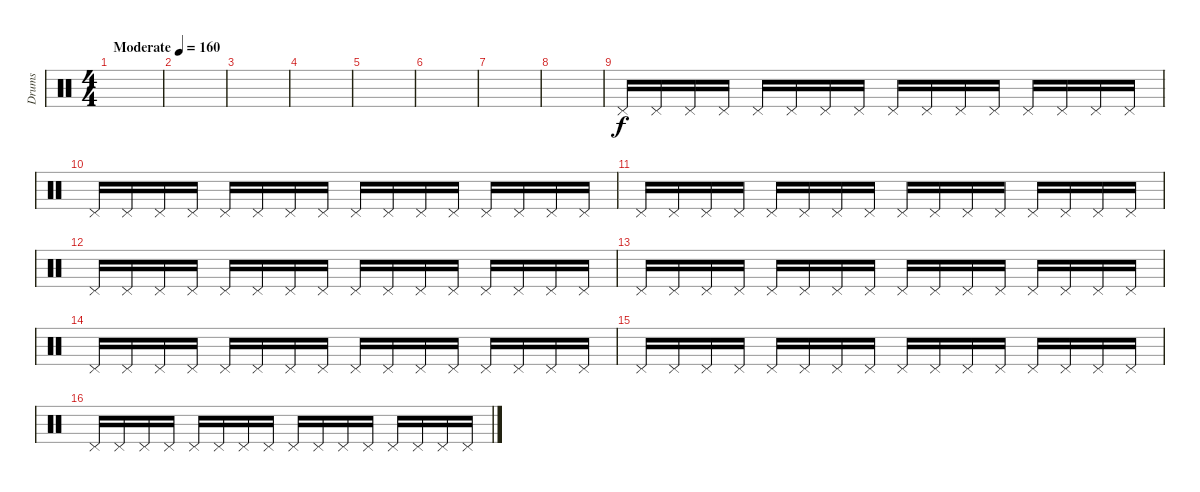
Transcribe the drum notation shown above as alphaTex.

\track ("Drums" "Drums") {instrument percussion}
\staff {score}
\articulation defaults
\ts (4 4)
\tempo (160 "Moderate")
\clef neutral
\ks c
|
|
|
|
|
|
|
|
"Pedal Hi-Hat (hit)".16 "Pedal Hi-Hat (hit)".16 "Pedal Hi-Hat (hit)".16 "Pedal Hi-Hat (hit)".16 "Pedal Hi-Hat (hit)".16 "Pedal Hi-Hat (hit)".16 "Pedal Hi-Hat (hit)".16 "Pedal Hi-Hat (hit)".16 "Pedal Hi-Hat (hit)".16 "Pedal Hi-Hat (hit)".16 "Pedal Hi-Hat (hit)".16 "Pedal Hi-Hat (hit)".16 "Pedal Hi-Hat (hit)".16 "Pedal Hi-Hat (hit)".16 "Pedal Hi-Hat (hit)".16 "Pedal Hi-Hat (hit)".16 |
"Pedal Hi-Hat (hit)".16 "Pedal Hi-Hat (hit)".16 "Pedal Hi-Hat (hit)".16 "Pedal Hi-Hat (hit)".16 "Pedal Hi-Hat (hit)".16 "Pedal Hi-Hat (hit)".16 "Pedal Hi-Hat (hit)".16 "Pedal Hi-Hat (hit)".16 "Pedal Hi-Hat (hit)".16 "Pedal Hi-Hat (hit)".16 "Pedal Hi-Hat (hit)".16 "Pedal Hi-Hat (hit)".16 "Pedal Hi-Hat (hit)".16 "Pedal Hi-Hat (hit)".16 "Pedal Hi-Hat (hit)".16 "Pedal Hi-Hat (hit)".16 |
"Pedal Hi-Hat (hit)".16 "Pedal Hi-Hat (hit)".16 "Pedal Hi-Hat (hit)".16 "Pedal Hi-Hat (hit)".16 "Pedal Hi-Hat (hit)".16 "Pedal Hi-Hat (hit)".16 "Pedal Hi-Hat (hit)".16 "Pedal Hi-Hat (hit)".16 "Pedal Hi-Hat (hit)".16 "Pedal Hi-Hat (hit)".16 "Pedal Hi-Hat (hit)".16 "Pedal Hi-Hat (hit)".16 "Pedal Hi-Hat (hit)".16 "Pedal Hi-Hat (hit)".16 "Pedal Hi-Hat (hit)".16 "Pedal Hi-Hat (hit)".16 |
"Pedal Hi-Hat (hit)".16 "Pedal Hi-Hat (hit)".16 "Pedal Hi-Hat (hit)".16 "Pedal Hi-Hat (hit)".16 "Pedal Hi-Hat (hit)".16 "Pedal Hi-Hat (hit)".16 "Pedal Hi-Hat (hit)".16 "Pedal Hi-Hat (hit)".16 "Pedal Hi-Hat (hit)".16 "Pedal Hi-Hat (hit)".16 "Pedal Hi-Hat (hit)".16 "Pedal Hi-Hat (hit)".16 "Pedal Hi-Hat (hit)".16 "Pedal Hi-Hat (hit)".16 "Pedal Hi-Hat (hit)".16 "Pedal Hi-Hat (hit)".16 |
"Pedal Hi-Hat (hit)".16 "Pedal Hi-Hat (hit)".16 "Pedal Hi-Hat (hit)".16 "Pedal Hi-Hat (hit)".16 "Pedal Hi-Hat (hit)".16 "Pedal Hi-Hat (hit)".16 "Pedal Hi-Hat (hit)".16 "Pedal Hi-Hat (hit)".16 "Pedal Hi-Hat (hit)".16 "Pedal Hi-Hat (hit)".16 "Pedal Hi-Hat (hit)".16 "Pedal Hi-Hat (hit)".16 "Pedal Hi-Hat (hit)".16 "Pedal Hi-Hat (hit)".16 "Pedal Hi-Hat (hit)".16 "Pedal Hi-Hat (hit)".16 |
"Pedal Hi-Hat (hit)".16 "Pedal Hi-Hat (hit)".16 "Pedal Hi-Hat (hit)".16 "Pedal Hi-Hat (hit)".16 "Pedal Hi-Hat (hit)".16 "Pedal Hi-Hat (hit)".16 "Pedal Hi-Hat (hit)".16 "Pedal Hi-Hat (hit)".16 "Pedal Hi-Hat (hit)".16 "Pedal Hi-Hat (hit)".16 "Pedal Hi-Hat (hit)".16 "Pedal Hi-Hat (hit)".16 "Pedal Hi-Hat (hit)".16 "Pedal Hi-Hat (hit)".16 "Pedal Hi-Hat (hit)".16 "Pedal Hi-Hat (hit)".16 |
"Pedal Hi-Hat (hit)".16 "Pedal Hi-Hat (hit)".16 "Pedal Hi-Hat (hit)".16 "Pedal Hi-Hat (hit)".16 "Pedal Hi-Hat (hit)".16 "Pedal Hi-Hat (hit)".16 "Pedal Hi-Hat (hit)".16 "Pedal Hi-Hat (hit)".16 "Pedal Hi-Hat (hit)".16 "Pedal Hi-Hat (hit)".16 "Pedal Hi-Hat (hit)".16 "Pedal Hi-Hat (hit)".16 "Pedal Hi-Hat (hit)".16 "Pedal Hi-Hat (hit)".16 "Pedal Hi-Hat (hit)".16 "Pedal Hi-Hat (hit)".16 |
"Pedal Hi-Hat (hit)".16 "Pedal Hi-Hat (hit)".16 "Pedal Hi-Hat (hit)".16 "Pedal Hi-Hat (hit)".16 "Pedal Hi-Hat (hit)".16 "Pedal Hi-Hat (hit)".16 "Pedal Hi-Hat (hit)".16 "Pedal Hi-Hat (hit)".16 "Pedal Hi-Hat (hit)".16 "Pedal Hi-Hat (hit)".16 "Pedal Hi-Hat (hit)".16 "Pedal Hi-Hat (hit)".16 "Pedal Hi-Hat (hit)".16 "Pedal Hi-Hat (hit)".16 "Pedal Hi-Hat (hit)".16 "Pedal Hi-Hat (hit)".16
